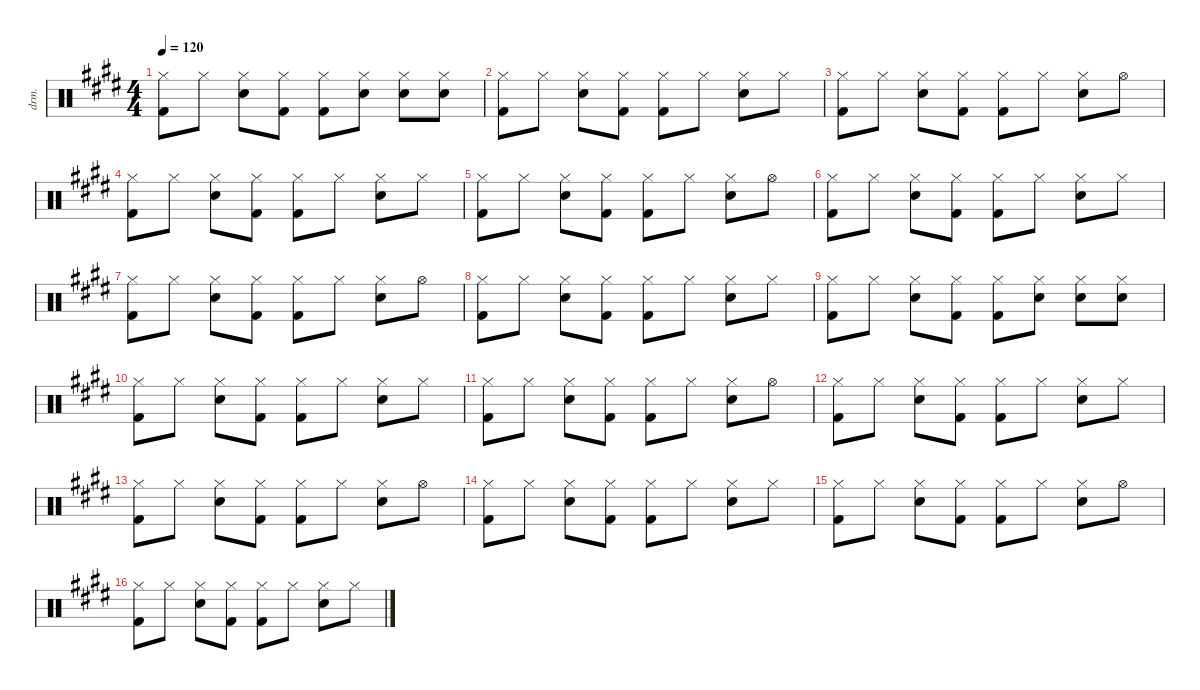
\defaultSystemsLayout 4
\hideDynamics
\bracketExtendMode nobrackets
\track ("Drum" "drm.") {instrument percussion}
\staff {score}
\articulation defaults
\ts (4 4)
\tempo 120
\clef neutral
\ks e
("Hi-Hat (closed)"{acc forcenatural} "Kick (hit) 2"{acc forcenatural}).8{dy f beam Down} "Hi-Hat (closed)"{acc forcenatural}.8{beam Down} ("Hi-Hat (closed)"{acc forcenatural} "Snare (hit) 2"{acc forcenatural}).8{beam Down} ("Hi-Hat (closed)"{acc forcenatural} "Kick (hit) 2"{acc forcenatural}).8{beam Down} ("Hi-Hat (closed)"{acc forcenatural} "Kick (hit) 2"{acc forcenatural}).8{beam Down} ("Hi-Hat (closed)"{acc forcenatural} "Snare (hit) 2"{acc forcenatural}).8{beam Down} ("Hi-Hat (closed)"{acc forcenatural} "Snare (hit) 2"{acc forcenatural}).8{beam Down} ("Hi-Hat (closed)"{acc forcenatural} "Snare (hit) 2"{acc forcenatural}).8{beam Down} |
("Hi-Hat (closed)"{acc forcenatural} "Kick (hit) 2"{acc forcenatural}).8{beam Down} "Hi-Hat (closed)"{acc forcenatural}.8{beam Down} ("Hi-Hat (closed)"{acc forcenatural} "Snare (hit) 2"{acc forcenatural}).8{beam Down} ("Hi-Hat (closed)"{acc forcenatural} "Kick (hit) 2"{acc forcenatural}).8{beam Down} ("Hi-Hat (closed)"{acc forcenatural} "Kick (hit) 2"{acc forcenatural}).8{beam Down} "Hi-Hat (closed)"{acc forcenatural}.8{beam Down} ("Hi-Hat (closed)"{acc forcenatural} "Snare (hit) 2"{acc forcenatural}).8{beam Down} "Hi-Hat (closed)"{acc forcenatural}.8{beam Down} |
("Hi-Hat (closed)"{acc forcenatural} "Kick (hit) 2"{acc forcenatural}).8{beam Down} "Hi-Hat (closed)"{acc forcenatural}.8{beam Down} ("Hi-Hat (closed)"{acc forcenatural} "Snare (hit) 2"{acc forcenatural}).8{beam Down} ("Hi-Hat (closed)"{acc forcenatural} "Kick (hit) 2"{acc forcenatural}).8{beam Down} ("Hi-Hat (closed)"{acc forcenatural} "Kick (hit) 2"{acc forcenatural}).8{beam Down} "Hi-Hat (closed)"{acc forcenatural}.8{beam Down} ("Hi-Hat (closed)"{acc forcenatural} "Snare (hit) 2"{acc forcenatural}).8{beam Down} "Hi-Hat (open)"{acc forcenatural}.8{beam Down} |
("Hi-Hat (closed)"{acc forcenatural} "Kick (hit) 2"{acc forcenatural}).8{beam Down} "Hi-Hat (closed)"{acc forcenatural}.8{beam Down} ("Hi-Hat (closed)"{acc forcenatural} "Snare (hit) 2"{acc forcenatural}).8{beam Down} ("Hi-Hat (closed)"{acc forcenatural} "Kick (hit) 2"{acc forcenatural}).8{beam Down} ("Hi-Hat (closed)"{acc forcenatural} "Kick (hit) 2"{acc forcenatural}).8{beam Down} "Hi-Hat (closed)"{acc forcenatural}.8{beam Down} ("Hi-Hat (closed)"{acc forcenatural} "Snare (hit) 2"{acc forcenatural}).8{beam Down} "Hi-Hat (closed)"{acc forcenatural}.8{beam Down} |
("Hi-Hat (closed)"{acc forcenatural} "Kick (hit) 2"{acc forcenatural}).8{beam Down} "Hi-Hat (closed)"{acc forcenatural}.8{beam Down} ("Hi-Hat (closed)"{acc forcenatural} "Snare (hit) 2"{acc forcenatural}).8{beam Down} ("Hi-Hat (closed)"{acc forcenatural} "Kick (hit) 2"{acc forcenatural}).8{beam Down} ("Hi-Hat (closed)"{acc forcenatural} "Kick (hit) 2"{acc forcenatural}).8{beam Down} "Hi-Hat (closed)"{acc forcenatural}.8{beam Down} ("Hi-Hat (closed)"{acc forcenatural} "Snare (hit) 2"{acc forcenatural}).8{beam Down} "Hi-Hat (open)"{acc forcenatural}.8{beam Down} |
("Hi-Hat (closed)"{acc forcenatural} "Kick (hit) 2"{acc forcenatural}).8{beam Down} "Hi-Hat (closed)"{acc forcenatural}.8{beam Down} ("Hi-Hat (closed)"{acc forcenatural} "Snare (hit) 2"{acc forcenatural}).8{beam Down} ("Hi-Hat (closed)"{acc forcenatural} "Kick (hit) 2"{acc forcenatural}).8{beam Down} ("Hi-Hat (closed)"{acc forcenatural} "Kick (hit) 2"{acc forcenatural}).8{beam Down} "Hi-Hat (closed)"{acc forcenatural}.8{beam Down} ("Hi-Hat (closed)"{acc forcenatural} "Snare (hit) 2"{acc forcenatural}).8{beam Down} "Hi-Hat (closed)"{acc forcenatural}.8{beam Down} |
("Hi-Hat (closed)"{acc forcenatural} "Kick (hit) 2"{acc forcenatural}).8{beam Down} "Hi-Hat (closed)"{acc forcenatural}.8{beam Down} ("Hi-Hat (closed)"{acc forcenatural} "Snare (hit) 2"{acc forcenatural}).8{beam Down} ("Hi-Hat (closed)"{acc forcenatural} "Kick (hit) 2"{acc forcenatural}).8{beam Down} ("Hi-Hat (closed)"{acc forcenatural} "Kick (hit) 2"{acc forcenatural}).8{beam Down} "Hi-Hat (closed)"{acc forcenatural}.8{beam Down} ("Hi-Hat (closed)"{acc forcenatural} "Snare (hit) 2"{acc forcenatural}).8{beam Down} "Hi-Hat (open)"{acc forcenatural}.8{beam Down} |
("Hi-Hat (closed)"{acc forcenatural} "Kick (hit) 2"{acc forcenatural}).8{beam Down} "Hi-Hat (closed)"{acc forcenatural}.8{beam Down} ("Hi-Hat (closed)"{acc forcenatural} "Snare (hit) 2"{acc forcenatural}).8{beam Down} ("Hi-Hat (closed)"{acc forcenatural} "Kick (hit) 2"{acc forcenatural}).8{beam Down} ("Hi-Hat (closed)"{acc forcenatural} "Kick (hit) 2"{acc forcenatural}).8{beam Down} "Hi-Hat (closed)"{acc forcenatural}.8{beam Down} ("Hi-Hat (closed)"{acc forcenatural} "Snare (hit) 2"{acc forcenatural}).8{beam Down} "Hi-Hat (closed)"{acc forcenatural}.8{beam Down} |
("Hi-Hat (closed)"{acc forcenatural} "Kick (hit) 2"{acc forcenatural}).8{beam Down} "Hi-Hat (closed)"{acc forcenatural}.8{beam Down} ("Hi-Hat (closed)"{acc forcenatural} "Snare (hit) 2"{acc forcenatural}).8{beam Down} ("Hi-Hat (closed)"{acc forcenatural} "Kick (hit) 2"{acc forcenatural}).8{beam Down} ("Hi-Hat (closed)"{acc forcenatural} "Kick (hit) 2"{acc forcenatural}).8{beam Down} ("Hi-Hat (closed)"{acc forcenatural} "Snare (hit) 2"{acc forcenatural}).8{beam Down} ("Hi-Hat (closed)"{acc forcenatural} "Snare (hit) 2"{acc forcenatural}).8{beam Down} ("Hi-Hat (closed)"{acc forcenatural} "Snare (hit) 2"{acc forcenatural}).8{beam Down} |
("Hi-Hat (closed)"{acc forcenatural} "Kick (hit) 2"{acc forcenatural}).8{beam Down} "Hi-Hat (closed)"{acc forcenatural}.8{beam Down} ("Hi-Hat (closed)"{acc forcenatural} "Snare (hit) 2"{acc forcenatural}).8{beam Down} ("Hi-Hat (closed)"{acc forcenatural} "Kick (hit) 2"{acc forcenatural}).8{beam Down} ("Hi-Hat (closed)"{acc forcenatural} "Kick (hit) 2"{acc forcenatural}).8{beam Down} "Hi-Hat (closed)"{acc forcenatural}.8{beam Down} ("Hi-Hat (closed)"{acc forcenatural} "Snare (hit) 2"{acc forcenatural}).8{beam Down} "Hi-Hat (closed)"{acc forcenatural}.8{beam Down} |
("Hi-Hat (closed)"{acc forcenatural} "Kick (hit) 2"{acc forcenatural}).8{beam Down} "Hi-Hat (closed)"{acc forcenatural}.8{beam Down} ("Hi-Hat (closed)"{acc forcenatural} "Snare (hit) 2"{acc forcenatural}).8{beam Down} ("Hi-Hat (closed)"{acc forcenatural} "Kick (hit) 2"{acc forcenatural}).8{beam Down} ("Hi-Hat (closed)"{acc forcenatural} "Kick (hit) 2"{acc forcenatural}).8{beam Down} "Hi-Hat (closed)"{acc forcenatural}.8{beam Down} ("Hi-Hat (closed)"{acc forcenatural} "Snare (hit) 2"{acc forcenatural}).8{beam Down} "Hi-Hat (open)"{acc forcenatural}.8{beam Down} |
("Hi-Hat (closed)"{acc forcenatural} "Kick (hit) 2"{acc forcenatural}).8{beam Down} "Hi-Hat (closed)"{acc forcenatural}.8{beam Down} ("Hi-Hat (closed)"{acc forcenatural} "Snare (hit) 2"{acc forcenatural}).8{beam Down} ("Hi-Hat (closed)"{acc forcenatural} "Kick (hit) 2"{acc forcenatural}).8{beam Down} ("Hi-Hat (closed)"{acc forcenatural} "Kick (hit) 2"{acc forcenatural}).8{beam Down} "Hi-Hat (closed)"{acc forcenatural}.8{beam Down} ("Hi-Hat (closed)"{acc forcenatural} "Snare (hit) 2"{acc forcenatural}).8{beam Down} "Hi-Hat (closed)"{acc forcenatural}.8{beam Down} |
("Hi-Hat (closed)"{acc forcenatural} "Kick (hit) 2"{acc forcenatural}).8{beam Down} "Hi-Hat (closed)"{acc forcenatural}.8{beam Down} ("Hi-Hat (closed)"{acc forcenatural} "Snare (hit) 2"{acc forcenatural}).8{beam Down} ("Hi-Hat (closed)"{acc forcenatural} "Kick (hit) 2"{acc forcenatural}).8{beam Down} ("Hi-Hat (closed)"{acc forcenatural} "Kick (hit) 2"{acc forcenatural}).8{beam Down} "Hi-Hat (closed)"{acc forcenatural}.8{beam Down} ("Hi-Hat (closed)"{acc forcenatural} "Snare (hit) 2"{acc forcenatural}).8{beam Down} "Hi-Hat (open)"{acc forcenatural}.8{beam Down} |
("Hi-Hat (closed)"{acc forcenatural} "Kick (hit) 2"{acc forcenatural}).8{beam Down} "Hi-Hat (closed)"{acc forcenatural}.8{beam Down} ("Hi-Hat (closed)"{acc forcenatural} "Snare (hit) 2"{acc forcenatural}).8{beam Down} ("Hi-Hat (closed)"{acc forcenatural} "Kick (hit) 2"{acc forcenatural}).8{beam Down} ("Hi-Hat (closed)"{acc forcenatural} "Kick (hit) 2"{acc forcenatural}).8{beam Down} "Hi-Hat (closed)"{acc forcenatural}.8{beam Down} ("Hi-Hat (closed)"{acc forcenatural} "Snare (hit) 2"{acc forcenatural}).8{beam Down} "Hi-Hat (closed)"{acc forcenatural}.8{beam Down} |
("Hi-Hat (closed)"{acc forcenatural} "Kick (hit) 2"{acc forcenatural}).8{beam Down} "Hi-Hat (closed)"{acc forcenatural}.8{beam Down} ("Hi-Hat (closed)"{acc forcenatural} "Snare (hit) 2"{acc forcenatural}).8{beam Down} ("Hi-Hat (closed)"{acc forcenatural} "Kick (hit) 2"{acc forcenatural}).8{beam Down} ("Hi-Hat (closed)"{acc forcenatural} "Kick (hit) 2"{acc forcenatural}).8{beam Down} "Hi-Hat (closed)"{acc forcenatural}.8{beam Down} ("Hi-Hat (closed)"{acc forcenatural} "Snare (hit) 2"{acc forcenatural}).8{beam Down} "Hi-Hat (open)"{acc forcenatural}.8{beam Down} |
("Hi-Hat (closed)"{acc forcenatural} "Kick (hit) 2"{acc forcenatural}).8{beam Down} "Hi-Hat (closed)"{acc forcenatural}.8{beam Down} ("Hi-Hat (closed)"{acc forcenatural} "Snare (hit) 2"{acc forcenatural}).8{beam Down} ("Hi-Hat (closed)"{acc forcenatural} "Kick (hit) 2"{acc forcenatural}).8{beam Down} ("Hi-Hat (closed)"{acc forcenatural} "Kick (hit) 2"{acc forcenatural}).8{beam Down} "Hi-Hat (closed)"{acc forcenatural}.8{beam Down} ("Hi-Hat (closed)"{acc forcenatural} "Snare (hit) 2"{acc forcenatural}).8{beam Down} "Hi-Hat (closed)"{acc forcenatural}.8{beam Down}
